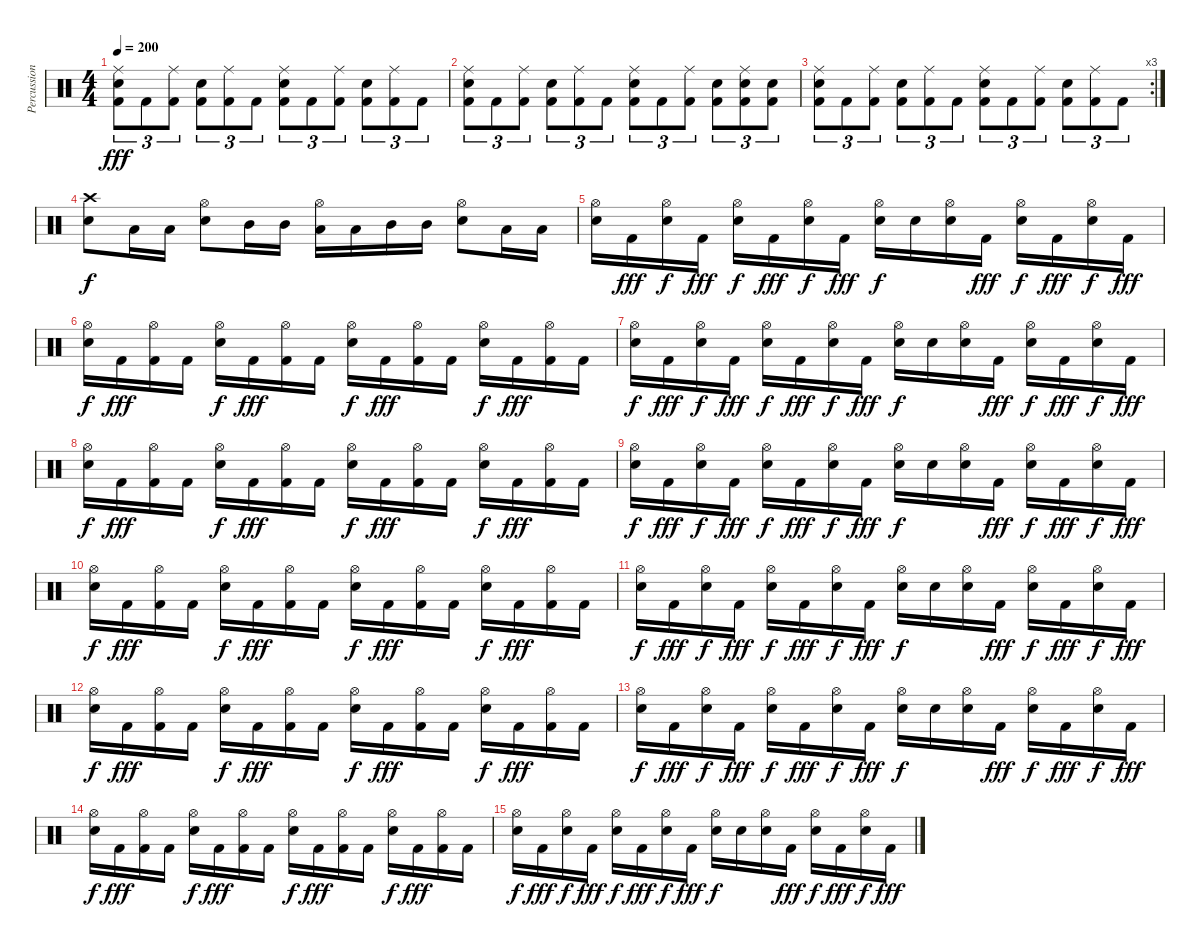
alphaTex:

\track ("Percussion" "Percussion") {instrument percussion}
\staff {score}
\articulation defaults
\ts (4 4)
\tempo 200
\clef neutral
\ks c
("Ride (middle)" "Electric Snare (hit)" "Kick (hit) 2").8{tu (3 2) dy fff} "Kick (hit) 2".8{tu (3 2)} ("Ride (middle)" "Kick (hit) 2").8{tu (3 2)} ("Electric Snare (hit)" "Kick (hit) 2").8{tu (3 2)} ("Ride (middle)" "Kick (hit) 2").8{tu (3 2)} "Kick (hit) 2".8{tu (3 2)} ("Ride (middle)" "Electric Snare (hit)" "Kick (hit) 2").8{tu (3 2)} "Kick (hit) 2".8{tu (3 2)} ("Ride (middle)" "Kick (hit) 2").8{tu (3 2)} ("Electric Snare (hit)" "Kick (hit) 2").8{tu (3 2)} ("Ride (middle)" "Kick (hit) 2").8{tu (3 2)} "Kick (hit) 2".8{tu (3 2)} |
("Ride (middle)" "Electric Snare (hit)" "Kick (hit) 2").8{tu (3 2)} "Kick (hit) 2".8{tu (3 2)} ("Ride (middle)" "Kick (hit) 2").8{tu (3 2)} ("Electric Snare (hit)" "Kick (hit) 2").8{tu (3 2)} ("Ride (middle)" "Kick (hit) 2").8{tu (3 2)} "Kick (hit) 2".8{tu (3 2)} ("Ride (middle)" "Electric Snare (hit)" "Kick (hit) 2").8{tu (3 2)} "Kick (hit) 2".8{tu (3 2)} ("Ride (middle)" "Kick (hit) 2").8{tu (3 2)} ("Electric Snare (hit)" "Kick (hit) 2").8{tu (3 2)} ("Ride (middle)" "Electric Snare (hit)" "Kick (hit) 2").8{tu (3 2)} ("Electric Snare (hit)" "Kick (hit) 2").8{tu (3 2)} |
\rc 3
("Ride (middle)" "Electric Snare (hit)" "Kick (hit) 2").8{tu (3 2)} "Kick (hit) 2".8{tu (3 2)} ("Ride (middle)" "Kick (hit) 2").8{tu (3 2)} ("Electric Snare (hit)" "Kick (hit) 2").8{tu (3 2)} ("Ride (middle)" "Kick (hit) 2").8{tu (3 2)} "Kick (hit) 2".8{tu (3 2)} ("Ride (middle)" "Electric Snare (hit)" "Kick (hit) 2").8{tu (3 2)} "Kick (hit) 2".8{tu (3 2)} ("Ride (middle)" "Kick (hit) 2").8{tu (3 2)} ("Electric Snare (hit)" "Kick (hit) 2").8{tu (3 2)} ("Ride (middle)" "Kick (hit) 2").8{tu (3 2)} "Kick (hit) 2".8{tu (3 2)} |
("Crash high (hit)" "Electric Snare (hit)").8{dy f} "Low Tom (hit)".16 "Low Tom (hit)".16 ("Hi-Hat (open)" "Electric Snare (hit)").8 "Mid Tom (hit)".16 "Mid Tom (hit)".16 ("Hi-Hat (open)" "Low Tom (hit)").16 "Low Tom (hit)".16 "Mid Tom (hit)".16 "Mid Tom (hit)".16 ("Hi-Hat (open)" "Electric Snare (hit)").8 "Low Tom (hit)".16 "Low Tom (hit)".16 |
("Hi-Hat (open)" "Electric Snare (hit)").16 "Kick (hit) 2".16{dy fff} ("Hi-Hat (open)" "Electric Snare (hit)").16{dy f} "Kick (hit) 2".16{dy fff} ("Hi-Hat (open)" "Electric Snare (hit)").16{dy f} "Kick (hit) 2".16{dy fff} ("Hi-Hat (open)" "Electric Snare (hit)").16{dy f} "Kick (hit) 2".16{dy fff} ("Hi-Hat (open)" "Electric Snare (hit)").16{dy f} "Electric Snare (hit)".16 ("Hi-Hat (open)" "Electric Snare (hit)").16 "Kick (hit) 2".16{dy fff} ("Hi-Hat (open)" "Electric Snare (hit)").16{dy f} "Kick (hit) 2".16{dy fff} ("Hi-Hat (open)" "Electric Snare (hit)").16{dy f} "Kick (hit) 2".16{dy fff} |
("Hi-Hat (open)" "Electric Snare (hit)").16{dy f} "Kick (hit) 2".16{dy fff} ("Hi-Hat (open)" "Kick (hit) 2").16 "Kick (hit) 2".16 ("Hi-Hat (open)" "Electric Snare (hit)").16{dy f} "Kick (hit) 2".16{dy fff} ("Hi-Hat (open)" "Kick (hit) 2").16 "Kick (hit) 2".16 ("Hi-Hat (open)" "Electric Snare (hit)").16{dy f} "Kick (hit) 2".16{dy fff} ("Hi-Hat (open)" "Kick (hit) 2").16 "Kick (hit) 2".16 ("Hi-Hat (open)" "Electric Snare (hit)").16{dy f} "Kick (hit) 2".16{dy fff} ("Hi-Hat (open)" "Kick (hit) 2").16 "Kick (hit) 2".16 |
("Hi-Hat (open)" "Electric Snare (hit)").16{dy f} "Kick (hit) 2".16{dy fff} ("Hi-Hat (open)" "Electric Snare (hit)").16{dy f} "Kick (hit) 2".16{dy fff} ("Hi-Hat (open)" "Electric Snare (hit)").16{dy f} "Kick (hit) 2".16{dy fff} ("Hi-Hat (open)" "Electric Snare (hit)").16{dy f} "Kick (hit) 2".16{dy fff} ("Hi-Hat (open)" "Electric Snare (hit)").16{dy f} "Electric Snare (hit)".16 ("Hi-Hat (open)" "Electric Snare (hit)").16 "Kick (hit) 2".16{dy fff} ("Hi-Hat (open)" "Electric Snare (hit)").16{dy f} "Kick (hit) 2".16{dy fff} ("Hi-Hat (open)" "Electric Snare (hit)").16{dy f} "Kick (hit) 2".16{dy fff} |
("Hi-Hat (open)" "Electric Snare (hit)").16{dy f} "Kick (hit) 2".16{dy fff} ("Hi-Hat (open)" "Kick (hit) 2").16 "Kick (hit) 2".16 ("Hi-Hat (open)" "Electric Snare (hit)").16{dy f} "Kick (hit) 2".16{dy fff} ("Hi-Hat (open)" "Kick (hit) 2").16 "Kick (hit) 2".16 ("Hi-Hat (open)" "Electric Snare (hit)").16{dy f} "Kick (hit) 2".16{dy fff} ("Hi-Hat (open)" "Kick (hit) 2").16 "Kick (hit) 2".16 ("Hi-Hat (open)" "Electric Snare (hit)").16{dy f} "Kick (hit) 2".16{dy fff} ("Hi-Hat (open)" "Kick (hit) 2").16 "Kick (hit) 2".16 |
("Hi-Hat (open)" "Electric Snare (hit)").16{dy f} "Kick (hit) 2".16{dy fff} ("Hi-Hat (open)" "Electric Snare (hit)").16{dy f} "Kick (hit) 2".16{dy fff} ("Hi-Hat (open)" "Electric Snare (hit)").16{dy f} "Kick (hit) 2".16{dy fff} ("Hi-Hat (open)" "Electric Snare (hit)").16{dy f} "Kick (hit) 2".16{dy fff} ("Hi-Hat (open)" "Electric Snare (hit)").16{dy f} "Electric Snare (hit)".16 ("Hi-Hat (open)" "Electric Snare (hit)").16 "Kick (hit) 2".16{dy fff} ("Hi-Hat (open)" "Electric Snare (hit)").16{dy f} "Kick (hit) 2".16{dy fff} ("Hi-Hat (open)" "Electric Snare (hit)").16{dy f} "Kick (hit) 2".16{dy fff} |
("Hi-Hat (open)" "Electric Snare (hit)").16{dy f} "Kick (hit) 2".16{dy fff} ("Hi-Hat (open)" "Kick (hit) 2").16 "Kick (hit) 2".16 ("Hi-Hat (open)" "Electric Snare (hit)").16{dy f} "Kick (hit) 2".16{dy fff} ("Hi-Hat (open)" "Kick (hit) 2").16 "Kick (hit) 2".16 ("Hi-Hat (open)" "Electric Snare (hit)").16{dy f} "Kick (hit) 2".16{dy fff} ("Hi-Hat (open)" "Kick (hit) 2").16 "Kick (hit) 2".16 ("Hi-Hat (open)" "Electric Snare (hit)").16{dy f} "Kick (hit) 2".16{dy fff} ("Hi-Hat (open)" "Kick (hit) 2").16 "Kick (hit) 2".16 |
("Hi-Hat (open)" "Electric Snare (hit)").16{dy f} "Kick (hit) 2".16{dy fff} ("Hi-Hat (open)" "Electric Snare (hit)").16{dy f} "Kick (hit) 2".16{dy fff} ("Hi-Hat (open)" "Electric Snare (hit)").16{dy f} "Kick (hit) 2".16{dy fff} ("Hi-Hat (open)" "Electric Snare (hit)").16{dy f} "Kick (hit) 2".16{dy fff} ("Hi-Hat (open)" "Electric Snare (hit)").16{dy f} "Electric Snare (hit)".16 ("Hi-Hat (open)" "Electric Snare (hit)").16 "Kick (hit) 2".16{dy fff} ("Hi-Hat (open)" "Electric Snare (hit)").16{dy f} "Kick (hit) 2".16{dy fff} ("Hi-Hat (open)" "Electric Snare (hit)").16{dy f} "Kick (hit) 2".16{dy fff} |
("Hi-Hat (open)" "Electric Snare (hit)").16{dy f} "Kick (hit) 2".16{dy fff} ("Hi-Hat (open)" "Kick (hit) 2").16 "Kick (hit) 2".16 ("Hi-Hat (open)" "Electric Snare (hit)").16{dy f} "Kick (hit) 2".16{dy fff} ("Hi-Hat (open)" "Kick (hit) 2").16 "Kick (hit) 2".16 ("Hi-Hat (open)" "Electric Snare (hit)").16{dy f} "Kick (hit) 2".16{dy fff} ("Hi-Hat (open)" "Kick (hit) 2").16 "Kick (hit) 2".16 ("Hi-Hat (open)" "Electric Snare (hit)").16{dy f} "Kick (hit) 2".16{dy fff} ("Hi-Hat (open)" "Kick (hit) 2").16 "Kick (hit) 2".16 |
("Hi-Hat (open)" "Electric Snare (hit)").16{dy f} "Kick (hit) 2".16{dy fff} ("Hi-Hat (open)" "Electric Snare (hit)").16{dy f} "Kick (hit) 2".16{dy fff} ("Hi-Hat (open)" "Electric Snare (hit)").16{dy f} "Kick (hit) 2".16{dy fff} ("Hi-Hat (open)" "Electric Snare (hit)").16{dy f} "Kick (hit) 2".16{dy fff} ("Hi-Hat (open)" "Electric Snare (hit)").16{dy f} "Electric Snare (hit)".16 ("Hi-Hat (open)" "Electric Snare (hit)").16 "Kick (hit) 2".16{dy fff} ("Hi-Hat (open)" "Electric Snare (hit)").16{dy f} "Kick (hit) 2".16{dy fff} ("Hi-Hat (open)" "Electric Snare (hit)").16{dy f} "Kick (hit) 2".16{dy fff} |
("Hi-Hat (open)" "Electric Snare (hit)").16{dy f} "Kick (hit) 2".16{dy fff} ("Hi-Hat (open)" "Kick (hit) 2").16 "Kick (hit) 2".16 ("Hi-Hat (open)" "Electric Snare (hit)").16{dy f} "Kick (hit) 2".16{dy fff} ("Hi-Hat (open)" "Kick (hit) 2").16 "Kick (hit) 2".16 ("Hi-Hat (open)" "Electric Snare (hit)").16{dy f} "Kick (hit) 2".16{dy fff} ("Hi-Hat (open)" "Kick (hit) 2").16 "Kick (hit) 2".16 ("Hi-Hat (open)" "Electric Snare (hit)").16{dy f} "Kick (hit) 2".16{dy fff} ("Hi-Hat (open)" "Kick (hit) 2").16 "Kick (hit) 2".16 |
("Hi-Hat (open)" "Electric Snare (hit)").16{dy f} "Kick (hit) 2".16{dy fff} ("Hi-Hat (open)" "Electric Snare (hit)").16{dy f} "Kick (hit) 2".16{dy fff} ("Hi-Hat (open)" "Electric Snare (hit)").16{dy f} "Kick (hit) 2".16{dy fff} ("Hi-Hat (open)" "Electric Snare (hit)").16{dy f} "Kick (hit) 2".16{dy fff} ("Hi-Hat (open)" "Electric Snare (hit)").16{dy f} "Electric Snare (hit)".16 ("Hi-Hat (open)" "Electric Snare (hit)").16 "Kick (hit) 2".16{dy fff} ("Hi-Hat (open)" "Electric Snare (hit)").16{dy f} "Kick (hit) 2".16{dy fff} ("Hi-Hat (open)" "Electric Snare (hit)").16{dy f} "Kick (hit) 2".16{dy fff}
